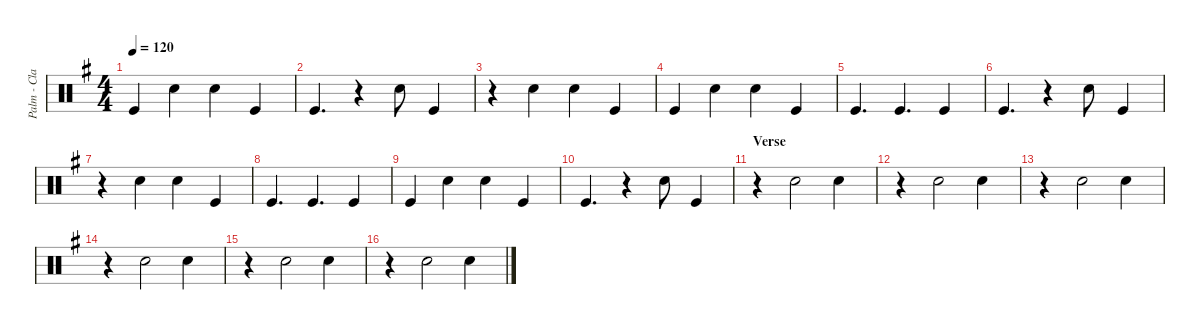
\defaultSystemsLayout 4
\hideDynamics
\bracketExtendMode nobrackets
\otherSystemsTrackNameOrientation horizontal
\track ("Palm - Clap" "Palm - Cla") {defaultSystemsLayout 2 instrument percussion}
\staff {score}
\articulation defaults
\ts (4 4)
\tempo 120
\clef neutral
\ks g "Kick (hit)"{acc forcenatural}.4{dy mp} "Hand Clap (hit)"{acc forcenatural}.4 "Hand Clap (hit)"{acc forcenatural}.4 "Kick (hit)"{acc forcenatural}.4
|
"Kick (hit)"{acc forcenatural}.4{d} r.4 "Hand Clap (hit)"{acc forcenatural}.8 "Kick (hit)"{acc forcenatural}.4 |
r.4 "Hand Clap (hit)"{acc forcenatural}.4 "Hand Clap (hit)"{acc forcenatural}.4 "Kick (hit)"{acc forcenatural}.4 |
"Kick (hit)"{acc forcenatural}.4 "Hand Clap (hit)"{acc forcenatural}.4 "Hand Clap (hit)"{acc forcenatural}.4 "Kick (hit)"{acc forcenatural}.4 |
"Kick (hit)"{acc forcenatural}.4{d} "Kick (hit)"{acc forcenatural}.4{d} "Kick (hit)"{acc forcenatural}.4 |
"Kick (hit)"{acc forcenatural}.4{d} r.4 "Hand Clap (hit)"{acc forcenatural}.8 "Kick (hit)"{acc forcenatural}.4 |
r.4 "Hand Clap (hit)"{acc forcenatural}.4 "Hand Clap (hit)"{acc forcenatural}.4 "Kick (hit)"{acc forcenatural}.4 |
"Kick (hit)"{acc forcenatural}.4{d} "Kick (hit)"{acc forcenatural}.4{d} "Kick (hit)"{acc forcenatural}.4 |
"Kick (hit)"{acc forcenatural}.4 "Hand Clap (hit)"{acc forcenatural}.4 "Hand Clap (hit)"{acc forcenatural}.4 "Kick (hit)"{acc forcenatural}.4 |
"Kick (hit)"{acc forcenatural}.4{d} r.4 "Hand Clap (hit)"{acc forcenatural}.8 "Kick (hit)"{acc forcenatural}.4 |
\section ("" "Verse")
r.4 "Hand Clap (hit)"{acc forcenatural}.2 "Hand Clap (hit)"{acc forcenatural}.4 |
r.4 "Hand Clap (hit)"{acc forcenatural}.2 "Hand Clap (hit)"{acc forcenatural}.4 |
r.4 "Hand Clap (hit)"{acc forcenatural}.2 "Hand Clap (hit)"{acc forcenatural}.4 |
r.4 "Hand Clap (hit)"{acc forcenatural}.2 "Hand Clap (hit)"{acc forcenatural}.4 |
r.4 "Hand Clap (hit)"{acc forcenatural}.2 "Hand Clap (hit)"{acc forcenatural}.4 |
r.4 "Hand Clap (hit)"{acc forcenatural}.2 "Hand Clap (hit)"{acc forcenatural}.4
